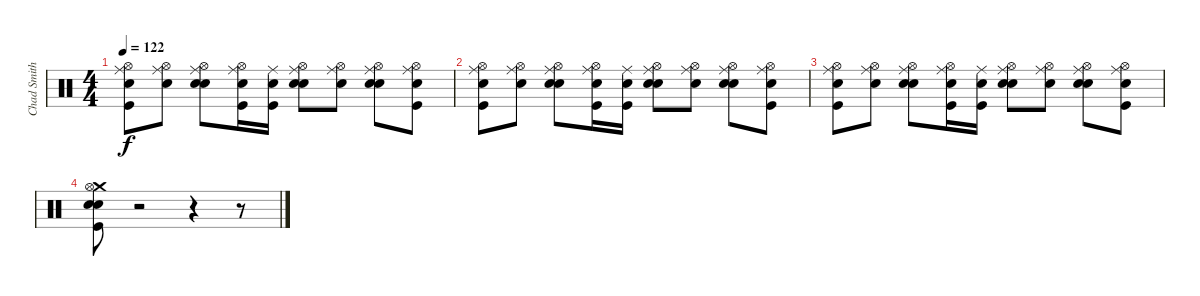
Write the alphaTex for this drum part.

\track ("Chad Smith" "Chad Smith") {instrument percussion}
\staff {score}
\articulation defaults
\ts (4 4)
\tempo 122
\clef neutral
\ks c
("Snare (hit)" "Kick (hit)" "Hi-Hat (open)" "Ride (middle)").8{dy f} ("Snare (hit)" "Hi-Hat (open)" "Ride (middle)").8 ("Snare (hit)" "Ride (middle)" "Electric Snare (hit)" "Hi-Hat (open)").8 ("Snare (hit)" "Kick (hit)" "Hi-Hat (open)" "Ride (middle)").16 ("Snare (hit)" "Ride (middle)" "Kick (hit)").16 ("Snare (hit)" "Hi-Hat (open)" "Metronome (bell)" "Ride (middle)").8 ("Snare (hit)" "Hi-Hat (open)" "Ride (middle)").8 ("Snare (hit)" "Hi-Hat (open)" "Electric Snare (hit)" "Ride (middle)").8 ("Snare (hit)" "Ride (middle)" "Kick (hit)" "Hi-Hat (open)").8 |
("Snare (hit)" "Kick (hit)" "Hi-Hat (open)" "Ride (middle)").8 ("Snare (hit)" "Hi-Hat (open)" "Ride (middle)").8 ("Snare (hit)" "Ride (middle)" "Electric Snare (hit)" "Hi-Hat (open)").8 ("Snare (hit)" "Kick (hit)" "Hi-Hat (open)" "Ride (middle)").16 ("Snare (hit)" "Kick (hit)" "Ride (middle)").16 ("Snare (hit)" "Ride (middle)" "Hi-Hat (open)" "Metronome (bell)").8 ("Snare (hit)" "Ride (middle)" "Hi-Hat (open)").8 ("Snare (hit)" "Hi-Hat (open)" "Electric Snare (hit)" "Ride (middle)").8 ("Snare (hit)" "Kick (hit)" "Ride (middle)" "Hi-Hat (open)").8 |
("Snare (hit)" "Kick (hit)" "Hi-Hat (open)" "Ride (middle)").8 ("Snare (hit)" "Hi-Hat (open)" "Ride (middle)").8 ("Snare (hit)" "Ride (middle)" "Electric Snare (hit)" "Hi-Hat (open)").8 ("Snare (hit)" "Kick (hit)" "Hi-Hat (open)" "Ride (middle)").16 ("Snare (hit)" "Ride (middle)" "Kick (hit)").16 ("Snare (hit)" "Hi-Hat (open)" "Metronome (bell)" "Ride (middle)").8 ("Snare (hit)" "Hi-Hat (open)" "Ride (middle)").8 ("Snare (hit)" "Hi-Hat (open)" "Electric Snare (hit)" "Ride (middle)").8 ("Snare (hit)" "Ride (middle)" "Kick (hit)" "Hi-Hat (open)").8 |
("Snare (hit)" "Crash medium (hit)" "Electric Snare (hit)" "Kick (hit)" "Hi-Hat (open)").8 r.2 r.4 r.8
